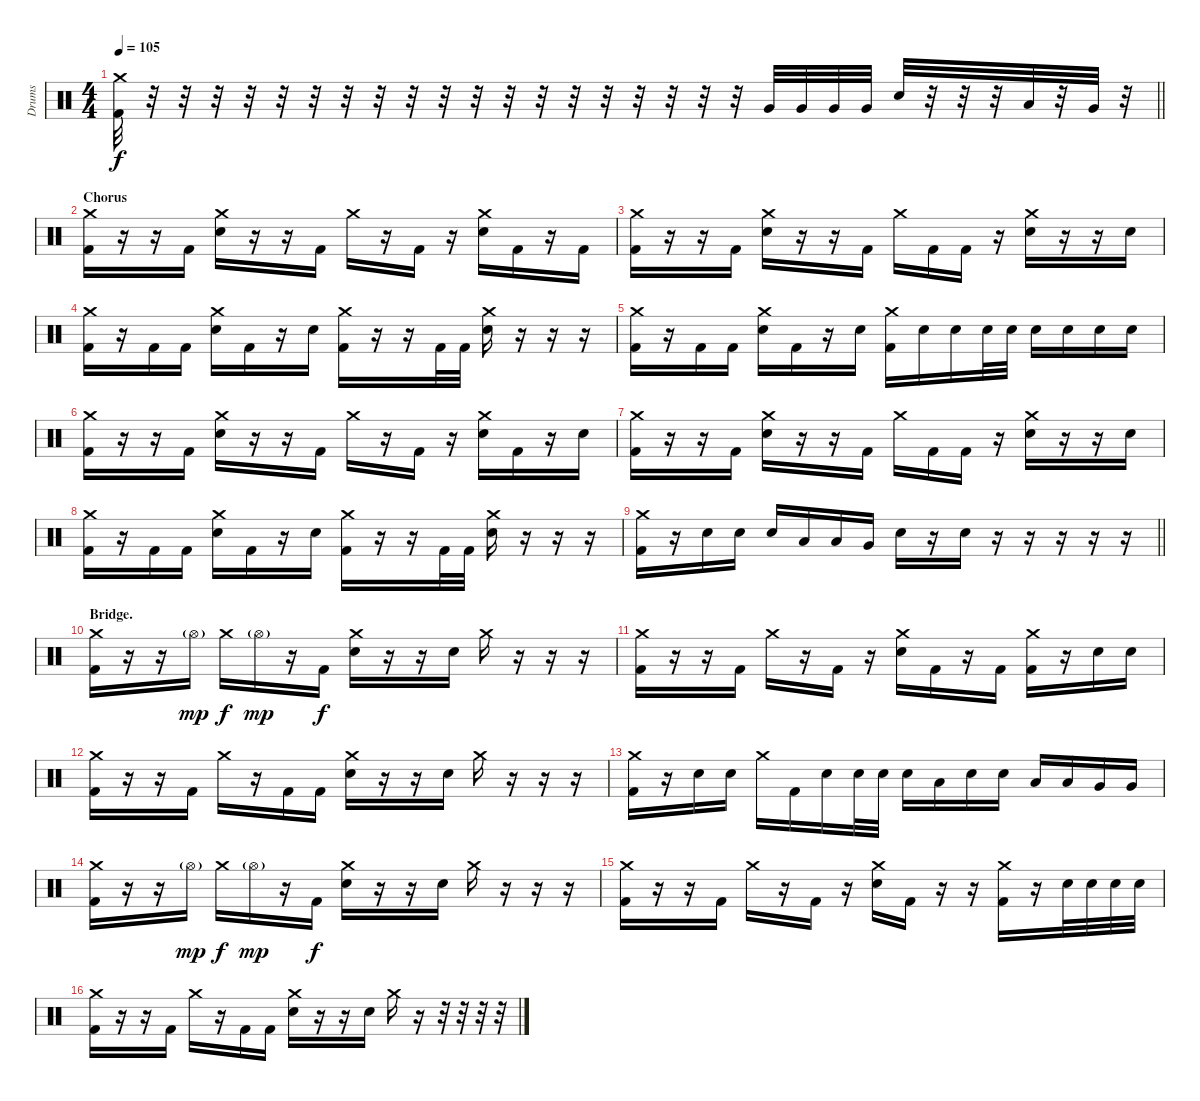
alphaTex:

\track ("Drums" "Drums") {instrument percussion}
\staff {score}
\articulation defaults
\ts (4 4)
\tempo 105
\clef neutral
\barLineRight lightlight
\ks c
("Crash medium (hit)" "Kick (hit) 2").32{dy f} r.32 r.32 r.32 r.32 r.32 r.32 r.32 r.32 r.32 r.32 r.32 r.32 r.32 r.32 r.32 r.32 r.32 r.32 r.32 "Very Low Tom (hit)".32 "Very Low Tom (hit)".32 "Very Low Tom (hit)".32 "Very Low Tom (hit)".32 "Electric Snare (hit)".32 r.32 r.32 r.32 "Low Tom (hit)".32 r.32 "Very Low Tom (hit)".32 r.32 |
\section ("" "Chorus")
("Crash medium (hit)" "Kick (hit) 2").16 r.16 r.16 "Kick (hit) 2".16 ("Crash medium (hit)" "Electric Snare (hit)").16 r.16 r.16 "Kick (hit) 2".16 "Crash medium (hit)".16 r.16 "Kick (hit) 2".16 r.16 ("Crash medium (hit)" "Electric Snare (hit)").16 "Kick (hit) 2".16 r.16 "Kick (hit) 2".16 |
("Crash medium (hit)" "Kick (hit) 2").16 r.16 r.16 "Kick (hit) 2".16 ("Crash medium (hit)" "Electric Snare (hit)").16 r.16 r.16 "Kick (hit) 2".16 "Crash medium (hit)".16 "Kick (hit) 2".16 "Kick (hit) 2".16 r.16 ("Crash medium (hit)" "Electric Snare (hit)").16 r.16 r.16 "Electric Snare (hit)".16 |
("Crash medium (hit)" "Kick (hit) 2").16 r.16 "Kick (hit) 2".16 "Kick (hit) 2".16 ("Crash medium (hit)" "Electric Snare (hit)").16 "Kick (hit) 2".16 r.16 "Electric Snare (hit)".16 ("Crash medium (hit)" "Kick (hit) 2").16 r.16 r.16 "Kick (hit) 2".32 "Kick (hit) 2".32 ("Crash medium (hit)" "Electric Snare (hit)").16 r.16 r.16 r.16 |
("Crash medium (hit)" "Kick (hit) 2").16 r.16 "Kick (hit) 2".16 "Kick (hit) 2".16 ("Crash medium (hit)" "Electric Snare (hit)").16 "Kick (hit) 2".16 r.16 "Electric Snare (hit)".16 ("Crash medium (hit)" "Kick (hit) 2").16 "Electric Snare (hit)".16 "Electric Snare (hit)".16 "Electric Snare (hit)".32 "Electric Snare (hit)".32 "Electric Snare (hit)".16 "Electric Snare (hit)".16 "Electric Snare (hit)".16 "Electric Snare (hit)".16 |
("Crash medium (hit)" "Kick (hit) 2").16 r.16 r.16 "Kick (hit) 2".16 ("Crash medium (hit)" "Electric Snare (hit)").16 r.16 r.16 "Kick (hit) 2".16 "Crash medium (hit)".16 r.16 "Kick (hit) 2".16 r.16 ("Crash medium (hit)" "Electric Snare (hit)").16 "Kick (hit) 2".16 r.16 "Electric Snare (hit)".16 |
("Crash medium (hit)" "Kick (hit) 2").16 r.16 r.16 "Kick (hit) 2".16 ("Crash medium (hit)" "Electric Snare (hit)").16 r.16 r.16 "Kick (hit) 2".16 "Crash medium (hit)".16 "Kick (hit) 2".16 "Kick (hit) 2".16 r.16 ("Crash medium (hit)" "Electric Snare (hit)").16 r.16 r.16 "Electric Snare (hit)".16 |
("Crash medium (hit)" "Kick (hit) 2").16 r.16 "Kick (hit) 2".16 "Kick (hit) 2".16 ("Crash medium (hit)" "Electric Snare (hit)").16 "Kick (hit) 2".16 r.16 "Electric Snare (hit)".16 ("Crash medium (hit)" "Kick (hit) 2").16 r.16 r.16 "Kick (hit) 2".32 "Kick (hit) 2".32 ("Crash medium (hit)" "Electric Snare (hit)").16 r.16 r.16 r.16 |
\barLineRight lightlight
("Crash medium (hit)" "Kick (hit) 2").16 r.16 "Electric Snare (hit)".16 "Electric Snare (hit)".16 "Electric Snare (hit)".16 "Low Tom (hit)".16 "Low Tom (hit)".16 "Very Low Tom (hit)".16 "Electric Snare (hit)".16 r.16 "Electric Snare (hit)".16 r.16 r.16 r.16 r.16 r.16 |
\section ("" "Bridge.")
("Crash medium (hit)" "Kick (hit) 2").16 r.16 r.16 "Hi-Hat (open)"{g}.16{dy mp} "Crash medium (hit)".16{dy f} "Hi-Hat (open)"{g}.16{dy mp} r.16 "Kick (hit) 2".16{dy f} ("Crash medium (hit)" "Electric Snare (hit)").16 r.16 r.16 "Electric Snare (hit)".16 "Crash medium (hit)".16 r.16 r.16 r.16 |
("Crash medium (hit)" "Kick (hit) 2").16 r.16 r.16 "Kick (hit) 2".16 "Crash medium (hit)".16 r.16 "Kick (hit) 2".16 r.16 ("Crash medium (hit)" "Electric Snare (hit)").16 "Kick (hit) 2".16 r.16 "Kick (hit) 2".16 ("Crash medium (hit)" "Kick (hit) 2").16 r.16 "Electric Snare (hit)".16 "Electric Snare (hit)".16 |
("Crash medium (hit)" "Kick (hit) 2").16 r.16 r.16 "Kick (hit) 2".16 "Crash medium (hit)".16 r.16 "Kick (hit) 2".16 "Kick (hit) 2".16 ("Crash medium (hit)" "Electric Snare (hit)").16 r.16 r.16 "Electric Snare (hit)".16 "Crash medium (hit)".16 r.16 r.16 r.16 |
("Crash medium (hit)" "Kick (hit) 2").16 r.16 "Electric Snare (hit)".16 "Electric Snare (hit)".16 "Crash medium (hit)".16 "Kick (hit) 2".16 "Electric Snare (hit)".16 "Electric Snare (hit)".32 "Electric Snare (hit)".32 "Electric Snare (hit)".16 "Low Tom (hit)".16 "Electric Snare (hit)".16 "Electric Snare (hit)".16 "Low Tom (hit)".16 "Low Tom (hit)".16 "Very Low Tom (hit)".16 "Very Low Tom (hit)".16 |
("Crash medium (hit)" "Kick (hit) 2").16 r.16 r.16 "Hi-Hat (open)"{g}.16{dy mp} "Crash medium (hit)".16{dy f} "Hi-Hat (open)"{g}.16{dy mp} r.16 "Kick (hit) 2".16{dy f} ("Crash medium (hit)" "Electric Snare (hit)").16 r.16 r.16 "Electric Snare (hit)".16 "Crash medium (hit)".16 r.16 r.16 r.16 |
("Crash medium (hit)" "Kick (hit) 2").16 r.16 r.16 "Kick (hit) 2".16 "Crash medium (hit)".16 r.16 "Kick (hit) 2".16 r.16 ("Crash medium (hit)" "Electric Snare (hit)").16 "Kick (hit) 2".16 r.16 r.16 ("Crash medium (hit)" "Kick (hit) 2").16 r.16 "Electric Snare (hit)".32 "Electric Snare (hit)".32 "Electric Snare (hit)".32 "Electric Snare (hit)".32 |
("Crash medium (hit)" "Kick (hit) 2").16 r.16 r.16 "Kick (hit) 2".16 "Crash medium (hit)".16 r.16 "Kick (hit) 2".16 "Kick (hit) 2".16 ("Crash medium (hit)" "Electric Snare (hit)").16 r.16 r.16 "Electric Snare (hit)".16 "Crash medium (hit)".16 r.16 r.32 r.32 r.32 r.32
